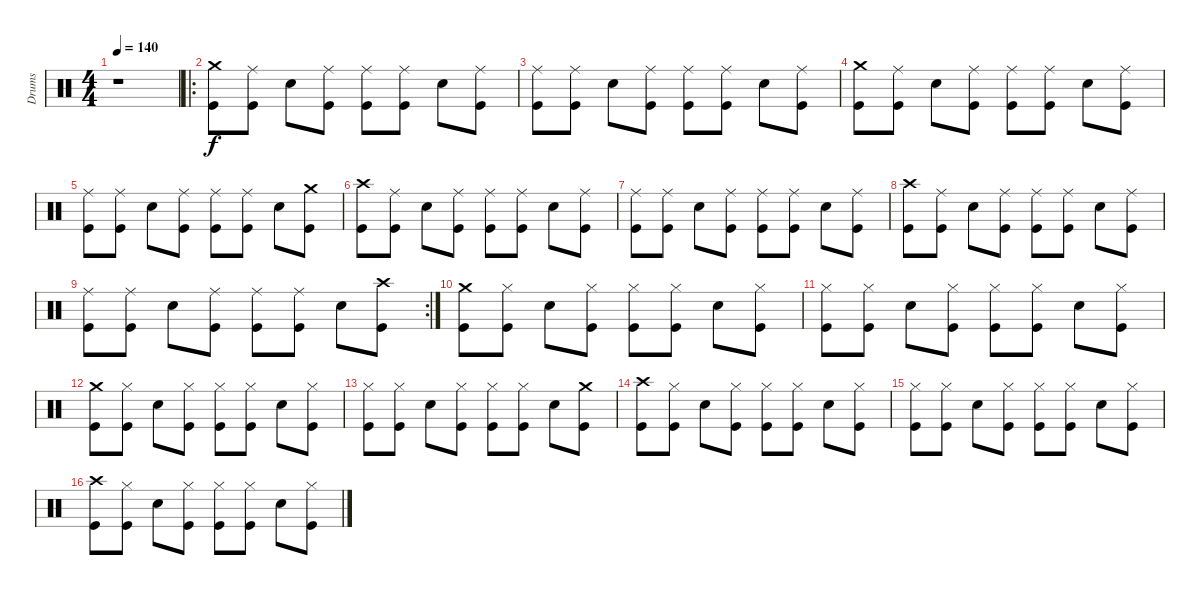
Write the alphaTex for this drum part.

\track ("Drums" "Drums") {instrument percussion}
\staff {score}
\articulation defaults
\ts (4 4)
\tempo 140
\clef neutral
\ks c
r.1{dy f} |
\ro
("Crash medium (hit)" "Kick (hit)").8 ("Ride (middle)" "Kick (hit)").8 "Electric Snare (hit)".8 ("Ride (middle)" "Kick (hit)").8 ("Ride (middle)" "Kick (hit)").8 ("Ride (middle)" "Kick (hit)").8 "Electric Snare (hit)".8 ("Ride (middle)" "Kick (hit)").8 |
("Ride (middle)" "Kick (hit)").8 ("Ride (middle)" "Kick (hit)").8 "Electric Snare (hit)".8 ("Ride (middle)" "Kick (hit)").8 ("Ride (middle)" "Kick (hit)").8 ("Ride (middle)" "Kick (hit)").8 "Electric Snare (hit)".8 ("Ride (middle)" "Kick (hit)").8 |
("Crash medium (hit)" "Kick (hit)").8 ("Ride (middle)" "Kick (hit)").8 "Electric Snare (hit)".8 ("Ride (middle)" "Kick (hit)").8 ("Ride (middle)" "Kick (hit)").8 ("Ride (middle)" "Kick (hit)").8 "Electric Snare (hit)".8 ("Ride (middle)" "Kick (hit)").8 |
("Ride (middle)" "Kick (hit)").8 ("Ride (middle)" "Kick (hit)").8 "Electric Snare (hit)".8 ("Ride (middle)" "Kick (hit)").8 ("Ride (middle)" "Kick (hit)").8 ("Ride (middle)" "Kick (hit)").8 "Electric Snare (hit)".8 ("Crash medium (hit)" "Kick (hit)").8 |
("Crash high (hit)" "Kick (hit)").8 ("Ride (middle)" "Kick (hit)").8 "Electric Snare (hit)".8 ("Ride (middle)" "Kick (hit)").8 ("Ride (middle)" "Kick (hit)").8 ("Ride (middle)" "Kick (hit)").8 "Electric Snare (hit)".8 ("Ride (middle)" "Kick (hit)").8 |
("Ride (middle)" "Kick (hit)").8 ("Ride (middle)" "Kick (hit)").8 "Electric Snare (hit)".8 ("Ride (middle)" "Kick (hit)").8 ("Ride (middle)" "Kick (hit)").8 ("Ride (middle)" "Kick (hit)").8 "Electric Snare (hit)".8 ("Ride (middle)" "Kick (hit)").8 |
("Crash high (hit)" "Kick (hit)").8 ("Ride (middle)" "Kick (hit)").8 "Electric Snare (hit)".8 ("Ride (middle)" "Kick (hit)").8 ("Ride (middle)" "Kick (hit)").8 ("Ride (middle)" "Kick (hit)").8 "Electric Snare (hit)".8 ("Ride (middle)" "Kick (hit)").8 |
\rc 2
("Ride (middle)" "Kick (hit)").8 ("Ride (middle)" "Kick (hit)").8 "Electric Snare (hit)".8 ("Ride (middle)" "Kick (hit)").8 ("Ride (middle)" "Kick (hit)").8 ("Ride (middle)" "Kick (hit)").8 "Electric Snare (hit)".8 ("Crash high (hit)" "Kick (hit)").8 |
("Crash medium (hit)" "Kick (hit)").8 ("Hi-Hat (closed)" "Kick (hit)").8 "Electric Snare (hit)".8 ("Hi-Hat (closed)" "Kick (hit)").8 ("Hi-Hat (closed)" "Kick (hit)").8 ("Hi-Hat (closed)" "Kick (hit)").8 "Electric Snare (hit)".8 ("Hi-Hat (closed)" "Kick (hit)").8 |
("Hi-Hat (closed)" "Kick (hit)").8 ("Hi-Hat (closed)" "Kick (hit)").8 "Electric Snare (hit)".8 ("Hi-Hat (closed)" "Kick (hit)").8 ("Hi-Hat (closed)" "Kick (hit)").8 ("Hi-Hat (closed)" "Kick (hit)").8 "Electric Snare (hit)".8 ("Hi-Hat (closed)" "Kick (hit)").8 |
("Crash medium (hit)" "Kick (hit)").8 ("Hi-Hat (closed)" "Kick (hit)").8 "Electric Snare (hit)".8 ("Hi-Hat (closed)" "Kick (hit)").8 ("Hi-Hat (closed)" "Kick (hit)").8 ("Hi-Hat (closed)" "Kick (hit)").8 "Electric Snare (hit)".8 ("Hi-Hat (closed)" "Kick (hit)").8 |
("Hi-Hat (closed)" "Kick (hit)").8 ("Hi-Hat (closed)" "Kick (hit)").8 "Electric Snare (hit)".8 ("Hi-Hat (closed)" "Kick (hit)").8 ("Hi-Hat (closed)" "Kick (hit)").8 ("Hi-Hat (closed)" "Kick (hit)").8 "Electric Snare (hit)".8 ("Crash medium (hit)" "Kick (hit)").8 |
("Crash high (hit)" "Kick (hit)").8 ("Hi-Hat (closed)" "Kick (hit)").8 "Electric Snare (hit)".8 ("Hi-Hat (closed)" "Kick (hit)").8 ("Hi-Hat (closed)" "Kick (hit)").8 ("Hi-Hat (closed)" "Kick (hit)").8 "Electric Snare (hit)".8 ("Hi-Hat (closed)" "Kick (hit)").8 |
("Hi-Hat (closed)" "Kick (hit)").8 ("Hi-Hat (closed)" "Kick (hit)").8 "Electric Snare (hit)".8 ("Hi-Hat (closed)" "Kick (hit)").8 ("Hi-Hat (closed)" "Kick (hit)").8 ("Hi-Hat (closed)" "Kick (hit)").8 "Electric Snare (hit)".8 ("Hi-Hat (closed)" "Kick (hit)").8 |
("Crash high (hit)" "Kick (hit)").8 ("Hi-Hat (closed)" "Kick (hit)").8 "Electric Snare (hit)".8 ("Hi-Hat (closed)" "Kick (hit)").8 ("Hi-Hat (closed)" "Kick (hit)").8 ("Hi-Hat (closed)" "Kick (hit)").8 "Electric Snare (hit)".8 ("Hi-Hat (closed)" "Kick (hit)").8
